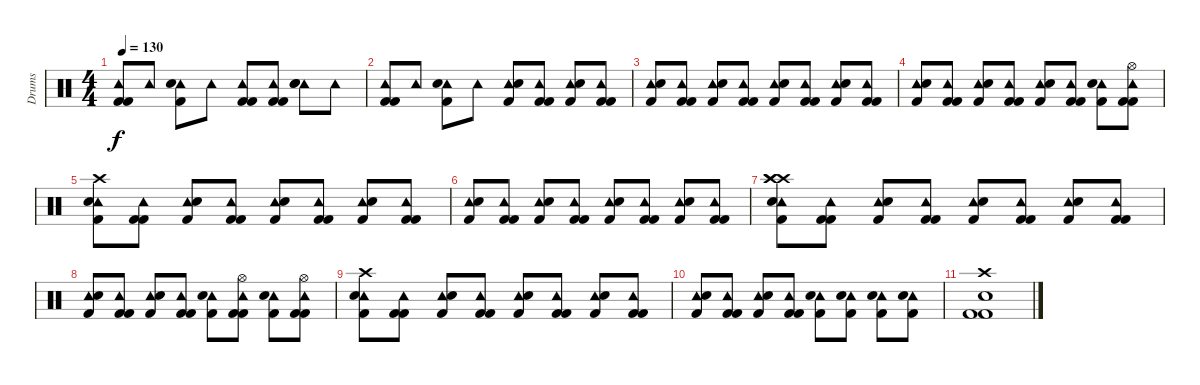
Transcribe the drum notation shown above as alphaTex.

\track ("Drums" "Drums") {instrument percussion}
\staff {score}
\articulation defaults
\ts (4 4)
\tempo 130
\clef neutral
\ks c
("Tambourine (hit)" "Kick (hit) 2" "Kick (hit) 2").8{dy f} "Tambourine (hit)".8 ("Tambourine (hit)" "Kick (hit) 2" "Snare (hit) 2").8 "Tambourine (hit)".8 ("Tambourine (hit)" "Kick (hit) 2" "Kick (hit) 2").8 ("Tambourine (hit)" "Kick (hit) 2" "Kick (hit) 2").8 ("Tambourine (hit)" "Snare (hit) 2" "Snare (hit) 2").8 "Tambourine (hit)".8 |
("Tambourine (hit)" "Kick (hit) 2" "Kick (hit) 2").8 "Tambourine (hit)".8 ("Tambourine (hit)" "Kick (hit) 2" "Snare (hit) 2").8 "Tambourine (hit)".8 ("Tambourine (hit)" "Kick (hit) 2" "Snare (hit) 2").8 ("Tambourine (hit)" "Kick (hit) 2" "Kick (hit) 2").8 ("Tambourine (hit)" "Kick (hit) 2" "Snare (hit) 2").8 ("Tambourine (hit)" "Kick (hit) 2" "Kick (hit) 2").8 |
("Tambourine (hit)" "Kick (hit) 2" "Snare (hit) 2").8 ("Tambourine (hit)" "Kick (hit) 2" "Kick (hit) 2").8 ("Tambourine (hit)" "Kick (hit) 2" "Snare (hit) 2").8 ("Tambourine (hit)" "Kick (hit) 2" "Kick (hit) 2").8 ("Tambourine (hit)" "Kick (hit) 2" "Snare (hit) 2").8 ("Tambourine (hit)" "Kick (hit) 2" "Kick (hit) 2").8 ("Tambourine (hit)" "Kick (hit) 2" "Snare (hit) 2").8 ("Tambourine (hit)" "Kick (hit) 2" "Kick (hit) 2").8 |
("Tambourine (hit)" "Kick (hit) 2" "Snare (hit) 2").8 ("Tambourine (hit)" "Kick (hit) 2" "Kick (hit) 2").8 ("Tambourine (hit)" "Kick (hit) 2" "Snare (hit) 2").8 ("Tambourine (hit)" "Kick (hit) 2" "Kick (hit) 2").8 ("Tambourine (hit)" "Kick (hit) 2" "Snare (hit) 2").8 ("Tambourine (hit)" "Kick (hit) 2" "Kick (hit) 2").8 ("Tambourine (hit)" "Kick (hit) 2" "Snare (hit) 2").8 ("Tambourine (hit)" "Kick (hit) 2" "Kick (hit) 2" "Hi-Hat (open)").8 |
("Tambourine (hit)" "Kick (hit) 2" "Snare (hit) 2" "Crash high (hit)").8 ("Tambourine (hit)" "Kick (hit) 2" "Kick (hit) 2").8 ("Tambourine (hit)" "Kick (hit) 2" "Snare (hit) 2").8 ("Tambourine (hit)" "Kick (hit) 2" "Kick (hit) 2").8 ("Tambourine (hit)" "Kick (hit) 2" "Snare (hit) 2").8 ("Tambourine (hit)" "Kick (hit) 2" "Kick (hit) 2").8 ("Tambourine (hit)" "Kick (hit) 2" "Snare (hit) 2").8 ("Tambourine (hit)" "Kick (hit) 2" "Kick (hit) 2").8 |
("Tambourine (hit)" "Kick (hit) 2" "Snare (hit) 2").8 ("Tambourine (hit)" "Kick (hit) 2" "Kick (hit) 2").8 ("Tambourine (hit)" "Kick (hit) 2" "Snare (hit) 2").8 ("Tambourine (hit)" "Kick (hit) 2" "Kick (hit) 2").8 ("Tambourine (hit)" "Kick (hit) 2" "Snare (hit) 2").8 ("Tambourine (hit)" "Kick (hit) 2" "Kick (hit) 2").8 ("Tambourine (hit)" "Kick (hit) 2" "Snare (hit) 2").8 ("Tambourine (hit)" "Kick (hit) 2" "Kick (hit) 2").8 |
("Tambourine (hit)" "Kick (hit) 2" "Snare (hit) 2" "Crash high (hit)" "Crash high (hit)" "Crash high (hit)").8 ("Tambourine (hit)" "Kick (hit) 2" "Kick (hit) 2").8 ("Tambourine (hit)" "Kick (hit) 2" "Snare (hit) 2").8 ("Tambourine (hit)" "Kick (hit) 2" "Kick (hit) 2").8 ("Tambourine (hit)" "Kick (hit) 2" "Snare (hit) 2").8 ("Tambourine (hit)" "Kick (hit) 2" "Kick (hit) 2").8 ("Tambourine (hit)" "Kick (hit) 2" "Snare (hit) 2").8 ("Tambourine (hit)" "Kick (hit) 2" "Kick (hit) 2").8 |
("Tambourine (hit)" "Kick (hit) 2" "Snare (hit) 2").8 ("Tambourine (hit)" "Kick (hit) 2" "Kick (hit) 2").8 ("Tambourine (hit)" "Kick (hit) 2" "Snare (hit) 2").8 ("Tambourine (hit)" "Kick (hit) 2" "Kick (hit) 2").8 ("Tambourine (hit)" "Kick (hit) 2" "Snare (hit) 2").8 ("Tambourine (hit)" "Kick (hit) 2" "Kick (hit) 2" "Hi-Hat (open)").8 ("Tambourine (hit)" "Kick (hit) 2" "Snare (hit) 2").8 ("Tambourine (hit)" "Kick (hit) 2" "Kick (hit) 2" "Hi-Hat (open)").8 |
("Tambourine (hit)" "Kick (hit) 2" "Snare (hit) 2" "Crash high (hit)").8 ("Tambourine (hit)" "Kick (hit) 2" "Kick (hit) 2").8 ("Tambourine (hit)" "Kick (hit) 2" "Snare (hit) 2").8 ("Tambourine (hit)" "Kick (hit) 2" "Kick (hit) 2").8 ("Tambourine (hit)" "Kick (hit) 2" "Snare (hit) 2").8 ("Tambourine (hit)" "Kick (hit) 2" "Kick (hit) 2").8 ("Tambourine (hit)" "Kick (hit) 2" "Snare (hit) 2").8 ("Tambourine (hit)" "Kick (hit) 2" "Kick (hit) 2").8 |
("Tambourine (hit)" "Kick (hit) 2" "Snare (hit) 2").8 ("Tambourine (hit)" "Kick (hit) 2" "Kick (hit) 2").8 ("Tambourine (hit)" "Kick (hit) 2" "Snare (hit) 2").8 ("Tambourine (hit)" "Kick (hit) 2" "Kick (hit) 2").8 ("Tambourine (hit)" "Kick (hit) 2" "Snare (hit) 2").8 ("Tambourine (hit)" "Kick (hit) 2" "Snare (hit) 2").8 ("Tambourine (hit)" "Kick (hit) 2" "Snare (hit) 2").8 ("Tambourine (hit)" "Kick (hit) 2" "Snare (hit) 2").8 |
("Kick (hit) 2" "Kick (hit) 2" "Snare (hit) 2" "Crash high (hit)").1
